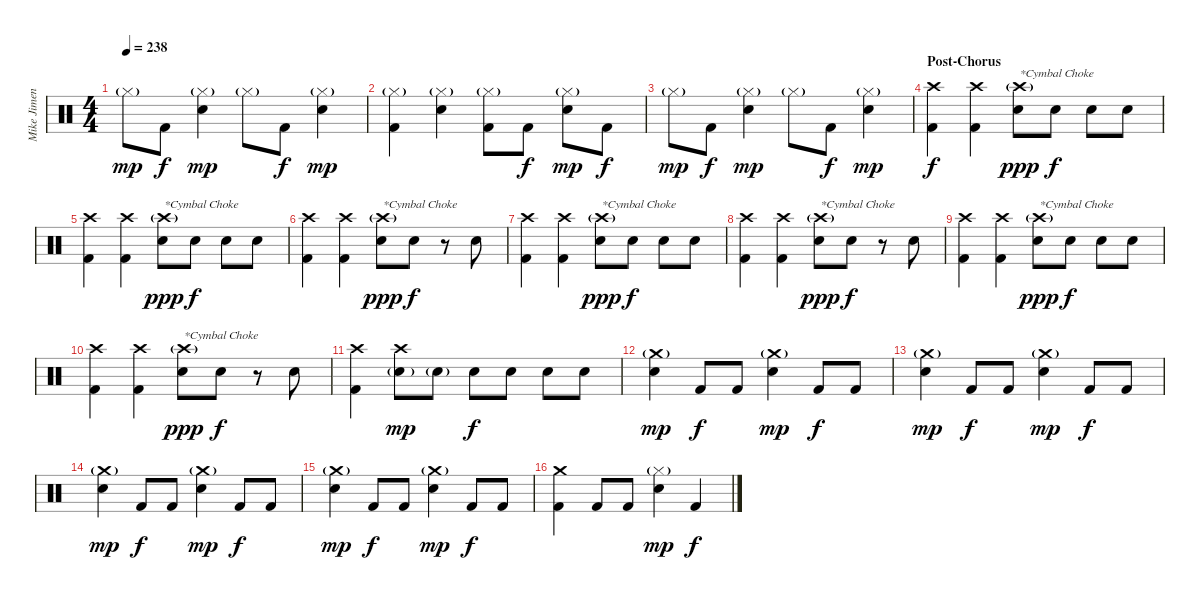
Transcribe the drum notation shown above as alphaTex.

\track ("Mike Jimenez" "Mike Jimen") {instrument percussion}
\staff {score}
\articulation defaults
\ts (4 4)
\tempo 238
\clef neutral
\ks c "Hi-Hat (closed)"{g}.8{dy mp} "Kick (hit) 2".8{dy f}
("Hi-Hat (closed)"{g} "Electric Snare (hit)").4{dy mp} "Hi-Hat (closed)"{g}.8 "Kick (hit) 2".8{dy f} ("Hi-Hat (closed)"{g} "Electric Snare (hit)").4{dy mp} |
("Hi-Hat (closed)"{g} "Kick (hit) 2").4 ("Hi-Hat (closed)"{g} "Electric Snare (hit)").4 ("Hi-Hat (closed)"{g} "Kick (hit) 2").8 "Kick (hit) 2".8{dy f} ("Hi-Hat (closed)"{g} "Electric Snare (hit)").8{dy mp} "Kick (hit) 2".8{dy f} |
"Hi-Hat (closed)"{g}.8{dy mp} "Kick (hit) 2".8{dy f} ("Hi-Hat (closed)"{g} "Electric Snare (hit)").4{dy mp} "Hi-Hat (closed)"{g}.8 "Kick (hit) 2".8{dy f} ("Hi-Hat (closed)"{g} "Electric Snare (hit)").4{dy mp} |
\section ("" "Post-Chorus")
("Crash high (hit)" "Kick (hit) 2").4{dy f} ("Crash high (hit)" "Kick (hit) 2").4 ("Crash high (hit)"{g} "Electric Snare (hit)").8{txt "*Cymbal Choke" dy ppp} "Electric Snare (hit)".8{dy f} "Electric Snare (hit)".8 "Electric Snare (hit)".8 |
("Crash high (hit)" "Kick (hit) 2").4 ("Crash high (hit)" "Kick (hit) 2").4 ("Crash high (hit)"{g} "Electric Snare (hit)").8{txt "*Cymbal Choke" dy ppp} "Electric Snare (hit)".8{dy f} "Electric Snare (hit)".8 "Electric Snare (hit)".8 |
("Crash high (hit)" "Kick (hit) 2").4 ("Crash high (hit)" "Kick (hit) 2").4 ("Crash high (hit)"{g} "Electric Snare (hit)").8{txt "*Cymbal Choke" dy ppp} "Electric Snare (hit)".8{dy f} r.8 "Electric Snare (hit)".8 |
("Crash high (hit)" "Kick (hit) 2").4 ("Crash high (hit)" "Kick (hit) 2").4 ("Crash high (hit)"{g} "Electric Snare (hit)").8{txt "*Cymbal Choke" dy ppp} "Electric Snare (hit)".8{dy f} "Electric Snare (hit)".8 "Electric Snare (hit)".8 |
("Crash high (hit)" "Kick (hit) 2").4 ("Crash high (hit)" "Kick (hit) 2").4 ("Crash high (hit)"{g} "Electric Snare (hit)").8{txt "*Cymbal Choke" dy ppp} "Electric Snare (hit)".8{dy f} r.8 "Electric Snare (hit)".8 |
("Crash high (hit)" "Kick (hit) 2").4 ("Crash high (hit)" "Kick (hit) 2").4 ("Crash high (hit)"{g} "Electric Snare (hit)").8{txt "*Cymbal Choke" dy ppp} "Electric Snare (hit)".8{dy f} "Electric Snare (hit)".8 "Electric Snare (hit)".8 |
("Crash high (hit)" "Kick (hit) 2").4 ("Crash high (hit)" "Kick (hit) 2").4 ("Crash high (hit)"{g} "Electric Snare (hit)").8{txt "*Cymbal Choke" dy ppp} "Electric Snare (hit)".8{dy f} r.8 "Electric Snare (hit)".8 |
("Crash high (hit)" "Kick (hit) 2").4 ("Crash high (hit)" "Electric Snare (hit)"{g}).8{dy mp} "Electric Snare (hit)"{g}.8 "Electric Snare (hit)".8{dy f} "Electric Snare (hit)".8 "Electric Snare (hit)".8 "Electric Snare (hit)".8 |
("Crash medium (hit)"{g} "Electric Snare (hit)").4{dy mp} "Kick (hit) 2".8{dy f} "Kick (hit) 2".8 ("Crash medium (hit)"{g} "Electric Snare (hit)").4{dy mp} "Kick (hit) 2".8{dy f} "Kick (hit) 2".8 |
("Crash medium (hit)"{g} "Electric Snare (hit)").4{dy mp} "Kick (hit) 2".8{dy f} "Kick (hit) 2".8 ("Crash medium (hit)"{g} "Electric Snare (hit)").4{dy mp} "Kick (hit) 2".8{dy f} "Kick (hit) 2".8 |
("Crash medium (hit)"{g} "Electric Snare (hit)").4{dy mp} "Kick (hit) 2".8{dy f} "Kick (hit) 2".8 ("Crash medium (hit)"{g} "Electric Snare (hit)").4{dy mp} "Kick (hit) 2".8{dy f} "Kick (hit) 2".8 |
("Crash medium (hit)"{g} "Electric Snare (hit)").4{dy mp} "Kick (hit) 2".8{dy f} "Kick (hit) 2".8 ("Crash medium (hit)"{g} "Electric Snare (hit)").4{dy mp} "Kick (hit) 2".8{dy f} "Kick (hit) 2".8 |
("Crash medium (hit)" "Kick (hit) 2").4 "Kick (hit) 2".8 "Kick (hit) 2".8 ("Hi-Hat (closed)"{g} "Electric Snare (hit)").4{dy mp} "Kick (hit) 2".4{dy f}
